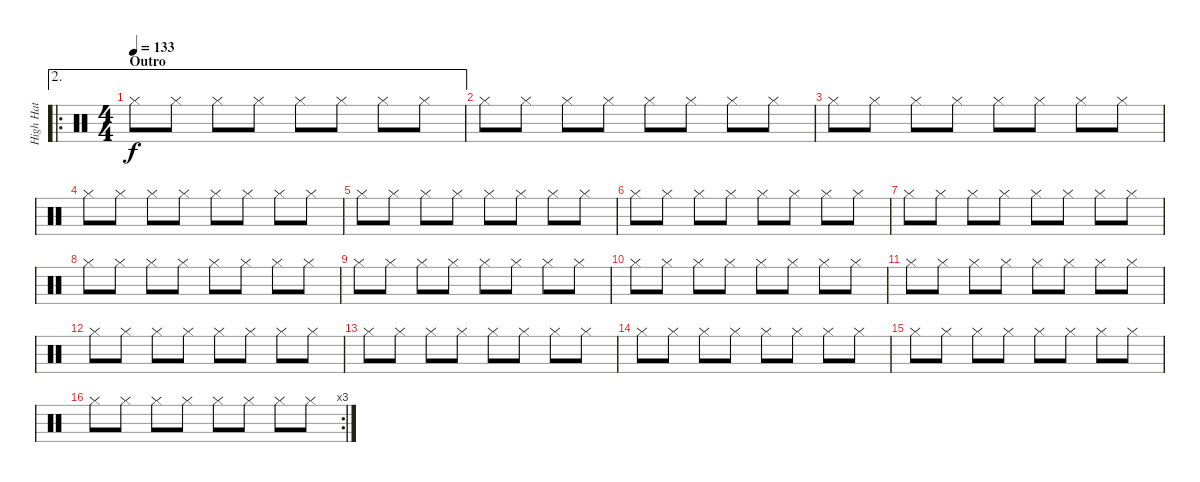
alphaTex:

\track ("High Hat" "High Hat") {instrument percussion}
\staff {score}
\articulation defaults
\ae 2
\ro
\ts (4 4)
\section ("" "Outro")
\tempo 133
\clef neutral
\ks c "Hi-Hat (closed)".8{dy f} "Hi-Hat (closed)".8 "Hi-Hat (closed)".8 "Hi-Hat (closed)".8 "Hi-Hat (closed)".8 "Hi-Hat (closed)".8 "Hi-Hat (closed)".8 "Hi-Hat (closed)".8
|
"Hi-Hat (closed)".8 "Hi-Hat (closed)".8 "Hi-Hat (closed)".8 "Hi-Hat (closed)".8 "Hi-Hat (closed)".8 "Hi-Hat (closed)".8 "Hi-Hat (closed)".8 "Hi-Hat (closed)".8 |
"Hi-Hat (closed)".8 "Hi-Hat (closed)".8 "Hi-Hat (closed)".8 "Hi-Hat (closed)".8 "Hi-Hat (closed)".8 "Hi-Hat (closed)".8 "Hi-Hat (closed)".8 "Hi-Hat (closed)".8 |
"Hi-Hat (closed)".8 "Hi-Hat (closed)".8 "Hi-Hat (closed)".8 "Hi-Hat (closed)".8 "Hi-Hat (closed)".8 "Hi-Hat (closed)".8 "Hi-Hat (closed)".8 "Hi-Hat (closed)".8 |
"Hi-Hat (closed)".8 "Hi-Hat (closed)".8 "Hi-Hat (closed)".8 "Hi-Hat (closed)".8 "Hi-Hat (closed)".8 "Hi-Hat (closed)".8 "Hi-Hat (closed)".8 "Hi-Hat (closed)".8 |
"Hi-Hat (closed)".8 "Hi-Hat (closed)".8 "Hi-Hat (closed)".8 "Hi-Hat (closed)".8 "Hi-Hat (closed)".8 "Hi-Hat (closed)".8 "Hi-Hat (closed)".8 "Hi-Hat (closed)".8 |
"Hi-Hat (closed)".8 "Hi-Hat (closed)".8 "Hi-Hat (closed)".8 "Hi-Hat (closed)".8 "Hi-Hat (closed)".8 "Hi-Hat (closed)".8 "Hi-Hat (closed)".8 "Hi-Hat (closed)".8 |
"Hi-Hat (closed)".8 "Hi-Hat (closed)".8 "Hi-Hat (closed)".8 "Hi-Hat (closed)".8 "Hi-Hat (closed)".8 "Hi-Hat (closed)".8 "Hi-Hat (closed)".8 "Hi-Hat (closed)".8 |
"Hi-Hat (closed)".8 "Hi-Hat (closed)".8 "Hi-Hat (closed)".8 "Hi-Hat (closed)".8 "Hi-Hat (closed)".8 "Hi-Hat (closed)".8 "Hi-Hat (closed)".8 "Hi-Hat (closed)".8 |
"Hi-Hat (closed)".8 "Hi-Hat (closed)".8 "Hi-Hat (closed)".8 "Hi-Hat (closed)".8 "Hi-Hat (closed)".8 "Hi-Hat (closed)".8 "Hi-Hat (closed)".8 "Hi-Hat (closed)".8 |
"Hi-Hat (closed)".8 "Hi-Hat (closed)".8 "Hi-Hat (closed)".8 "Hi-Hat (closed)".8 "Hi-Hat (closed)".8 "Hi-Hat (closed)".8 "Hi-Hat (closed)".8 "Hi-Hat (closed)".8 |
"Hi-Hat (closed)".8 "Hi-Hat (closed)".8 "Hi-Hat (closed)".8 "Hi-Hat (closed)".8 "Hi-Hat (closed)".8 "Hi-Hat (closed)".8 "Hi-Hat (closed)".8 "Hi-Hat (closed)".8 |
"Hi-Hat (closed)".8 "Hi-Hat (closed)".8 "Hi-Hat (closed)".8 "Hi-Hat (closed)".8 "Hi-Hat (closed)".8 "Hi-Hat (closed)".8 "Hi-Hat (closed)".8 "Hi-Hat (closed)".8 |
"Hi-Hat (closed)".8 "Hi-Hat (closed)".8 "Hi-Hat (closed)".8 "Hi-Hat (closed)".8 "Hi-Hat (closed)".8 "Hi-Hat (closed)".8 "Hi-Hat (closed)".8 "Hi-Hat (closed)".8 |
"Hi-Hat (closed)".8 "Hi-Hat (closed)".8 "Hi-Hat (closed)".8 "Hi-Hat (closed)".8 "Hi-Hat (closed)".8 "Hi-Hat (closed)".8 "Hi-Hat (closed)".8 "Hi-Hat (closed)".8 |
\rc 3 "Hi-Hat (closed)".8 "Hi-Hat (closed)".8 "Hi-Hat (closed)".8 "Hi-Hat (closed)".8 "Hi-Hat (closed)".8 "Hi-Hat (closed)".8 "Hi-Hat (closed)".8 "Hi-Hat (closed)".8
